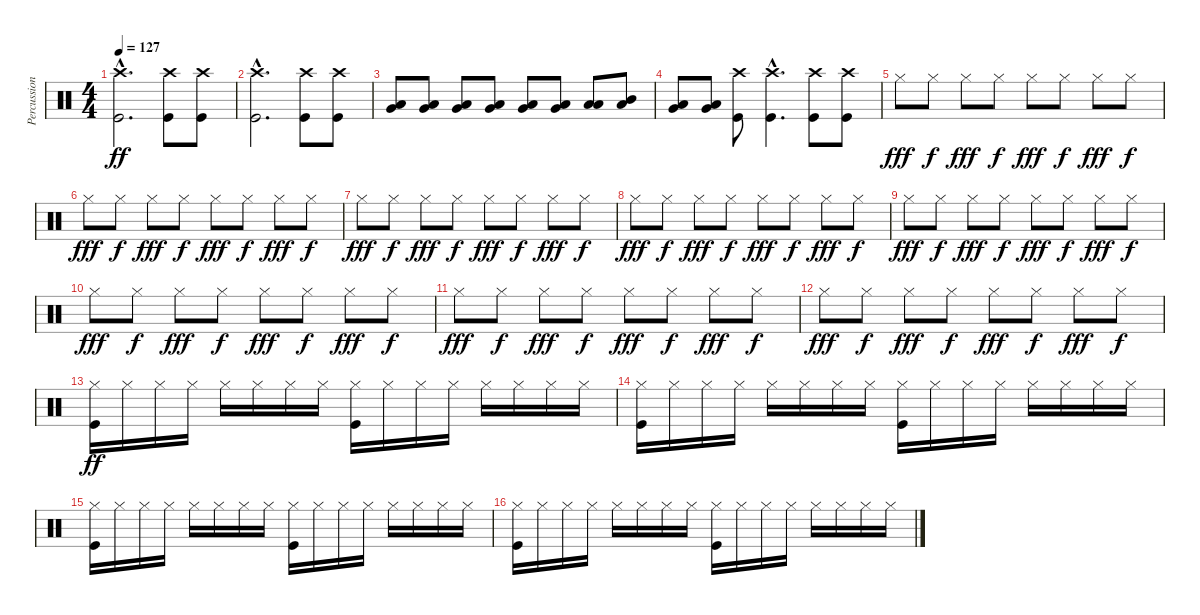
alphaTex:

\track ("Percussion" "Percussion") {instrument percussion}
\staff {score}
\articulation defaults
\ts (4 4)
\tempo 127
\clef neutral
\ks c
("Crash high (hit)"{hac} "Kick (hit)"{hac}).2{d dy ff} ("Crash high (hit)" "Kick (hit)").8 ("Crash high (hit)" "Kick (hit)").8 |
("Crash high (hit)"{hac} "Kick (hit)"{hac}).2{d} ("Crash high (hit)" "Kick (hit)").8 ("Crash high (hit)" "Kick (hit)").8 |
("Very Low Tom (hit)" "Low Floor Tom (hit)").8 ("Very Low Tom (hit)" "Low Floor Tom (hit)").8 ("Very Low Tom (hit)" "Low Floor Tom (hit)").8 ("Very Low Tom (hit)" "Low Floor Tom (hit)").8 ("Very Low Tom (hit)" "Low Floor Tom (hit)").8 ("Very Low Tom (hit)" "Low Floor Tom (hit)").8 ("Low Tom (hit)" "Low Floor Tom (hit)").8 ("Mid Tom (hit)" "Low Floor Tom (hit)").8 |
("Very Low Tom (hit)" "Low Floor Tom (hit)").8 ("Very Low Tom (hit)" "Low Floor Tom (hit)").8 ("Crash high (hit)" "Kick (hit)").8 ("Crash high (hit)"{hac} "Kick (hit)"{hac}).4{d} ("Crash high (hit)" "Kick (hit)").8 ("Crash high (hit)" "Kick (hit)").8 |
"Hi-Hat (closed)".8{dy fff} "Hi-Hat (closed)".8{dy f} "Hi-Hat (closed)".8{dy fff} "Hi-Hat (closed)".8{dy f} "Hi-Hat (closed)".8{dy fff} "Hi-Hat (closed)".8{dy f} "Hi-Hat (closed)".8{dy fff} "Hi-Hat (closed)".8{dy f} |
"Hi-Hat (closed)".8{dy fff} "Hi-Hat (closed)".8{dy f} "Hi-Hat (closed)".8{dy fff} "Hi-Hat (closed)".8{dy f} "Hi-Hat (closed)".8{dy fff} "Hi-Hat (closed)".8{dy f} "Hi-Hat (closed)".8{dy fff} "Hi-Hat (closed)".8{dy f} |
"Hi-Hat (closed)".8{dy fff} "Hi-Hat (closed)".8{dy f} "Hi-Hat (closed)".8{dy fff} "Hi-Hat (closed)".8{dy f} "Hi-Hat (closed)".8{dy fff} "Hi-Hat (closed)".8{dy f} "Hi-Hat (closed)".8{dy fff} "Hi-Hat (closed)".8{dy f} |
"Hi-Hat (closed)".8{dy fff} "Hi-Hat (closed)".8{dy f} "Hi-Hat (closed)".8{dy fff} "Hi-Hat (closed)".8{dy f} "Hi-Hat (closed)".8{dy fff} "Hi-Hat (closed)".8{dy f} "Hi-Hat (closed)".8{dy fff} "Hi-Hat (closed)".8{dy f} |
"Hi-Hat (closed)".8{dy fff} "Hi-Hat (closed)".8{dy f} "Hi-Hat (closed)".8{dy fff} "Hi-Hat (closed)".8{dy f} "Hi-Hat (closed)".8{dy fff} "Hi-Hat (closed)".8{dy f} "Hi-Hat (closed)".8{dy fff} "Hi-Hat (closed)".8{dy f} |
"Hi-Hat (closed)".8{dy fff} "Hi-Hat (closed)".8{dy f} "Hi-Hat (closed)".8{dy fff} "Hi-Hat (closed)".8{dy f} "Hi-Hat (closed)".8{dy fff} "Hi-Hat (closed)".8{dy f} "Hi-Hat (closed)".8{dy fff} "Hi-Hat (closed)".8{dy f} |
"Hi-Hat (closed)".8{dy fff} "Hi-Hat (closed)".8{dy f} "Hi-Hat (closed)".8{dy fff} "Hi-Hat (closed)".8{dy f} "Hi-Hat (closed)".8{dy fff} "Hi-Hat (closed)".8{dy f} "Hi-Hat (closed)".8{dy fff} "Hi-Hat (closed)".8{dy f} |
"Hi-Hat (closed)".8{dy fff} "Hi-Hat (closed)".8{dy f} "Hi-Hat (closed)".8{dy fff} "Hi-Hat (closed)".8{dy f} "Hi-Hat (closed)".8{dy fff} "Hi-Hat (closed)".8{dy f} "Hi-Hat (closed)".8{dy fff} "Hi-Hat (closed)".8{dy f} |
("Hi-Hat (closed)" "Kick (hit)").16{dy ff} "Hi-Hat (closed)".16 "Hi-Hat (closed)".16 "Hi-Hat (closed)".16 "Hi-Hat (closed)".16 "Hi-Hat (closed)".16 "Hi-Hat (closed)".16 "Hi-Hat (closed)".16 ("Hi-Hat (closed)" "Kick (hit)").16 "Hi-Hat (closed)".16 "Hi-Hat (closed)".16 "Hi-Hat (closed)".16 "Hi-Hat (closed)".16 "Hi-Hat (closed)".16 "Hi-Hat (closed)".16 "Hi-Hat (closed)".16 |
("Hi-Hat (closed)" "Kick (hit)").16 "Hi-Hat (closed)".16 "Hi-Hat (closed)".16 "Hi-Hat (closed)".16 "Hi-Hat (closed)".16 "Hi-Hat (closed)".16 "Hi-Hat (closed)".16 "Hi-Hat (closed)".16 ("Hi-Hat (closed)" "Kick (hit)").16 "Hi-Hat (closed)".16 "Hi-Hat (closed)".16 "Hi-Hat (closed)".16 "Hi-Hat (closed)".16 "Hi-Hat (closed)".16 "Hi-Hat (closed)".16 "Hi-Hat (closed)".16 |
("Hi-Hat (closed)" "Kick (hit)").16 "Hi-Hat (closed)".16 "Hi-Hat (closed)".16 "Hi-Hat (closed)".16 "Hi-Hat (closed)".16 "Hi-Hat (closed)".16 "Hi-Hat (closed)".16 "Hi-Hat (closed)".16 ("Hi-Hat (closed)" "Kick (hit)").16 "Hi-Hat (closed)".16 "Hi-Hat (closed)".16 "Hi-Hat (closed)".16 "Hi-Hat (closed)".16 "Hi-Hat (closed)".16 "Hi-Hat (closed)".16 "Hi-Hat (closed)".16 |
("Hi-Hat (closed)" "Kick (hit)").16 "Hi-Hat (closed)".16 "Hi-Hat (closed)".16 "Hi-Hat (closed)".16 "Hi-Hat (closed)".16 "Hi-Hat (closed)".16 "Hi-Hat (closed)".16 "Hi-Hat (closed)".16 ("Hi-Hat (closed)" "Kick (hit)").16 "Hi-Hat (closed)".16 "Hi-Hat (closed)".16 "Hi-Hat (closed)".16 "Hi-Hat (closed)".16 "Hi-Hat (closed)".16 "Hi-Hat (closed)".16 "Hi-Hat (closed)".16
